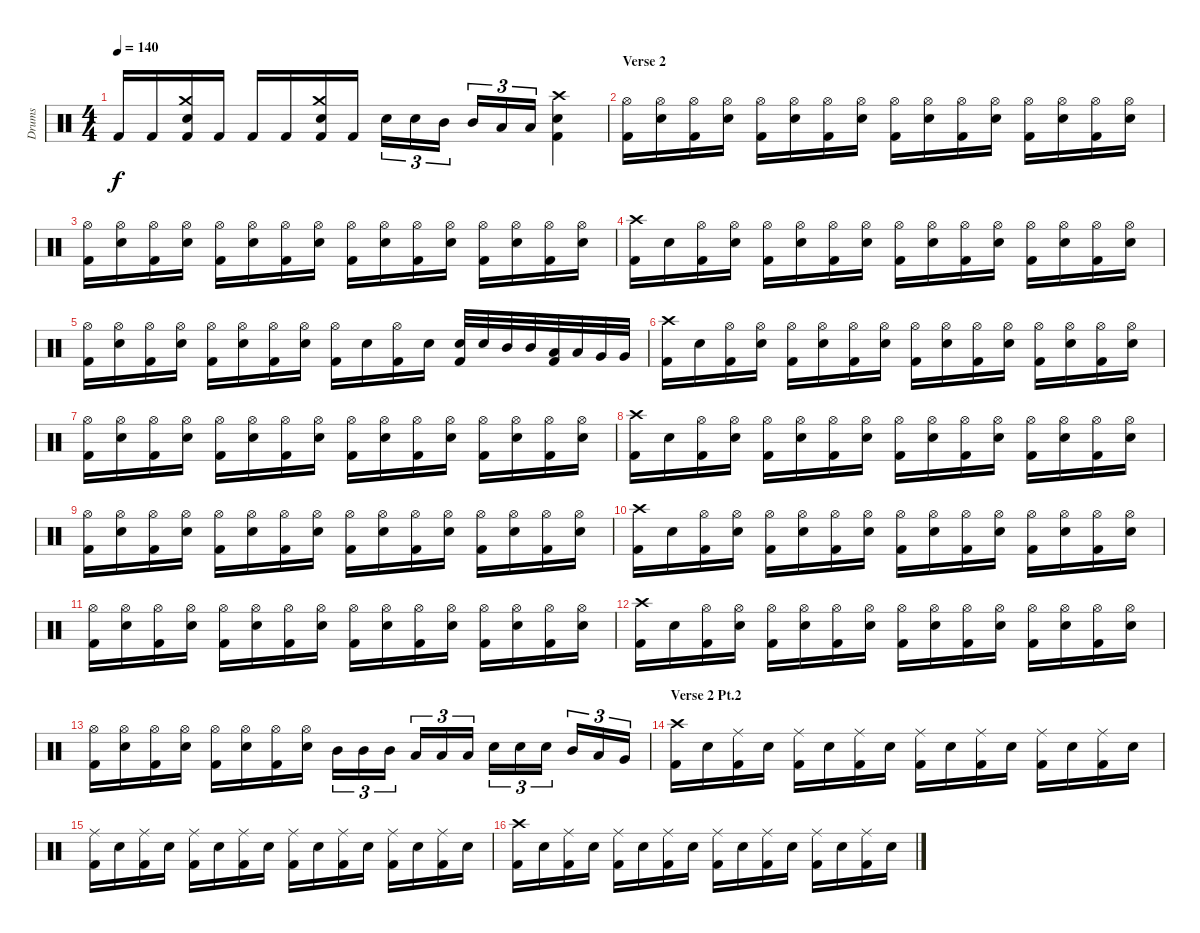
\track ("Drums" "Drums") {instrument percussion}
\staff {score}
\articulation defaults
\ts (4 4)
\tempo 140
\clef neutral
\ks c "Kick (hit) 2".16{dy f} "Kick (hit) 2".16
("Crash medium (hit)" "Electric Snare (hit)" "Kick (hit) 2").16 "Kick (hit) 2".16 "Kick (hit) 2".16 "Kick (hit) 2".16 ("Crash medium (hit)" "Electric Snare (hit)" "Kick (hit) 2").16 "Kick (hit) 2".16 "Electric Snare (hit)".16{tu (3 2)} "Electric Snare (hit)".16{tu (3 2)} "Mid Tom (hit)".16{tu (3 2)} "Mid Tom (hit)".16{tu (3 2)} "Low Tom (hit)".16{tu (3 2)} "Low Tom (hit)".16{tu (3 2)} ("Crash high (hit)" "Electric Snare (hit)" "Kick (hit) 2").4 |
\section ("" "Verse 2")
("Hi-Hat (open)" "Kick (hit) 2").16 ("Hi-Hat (open)" "Electric Snare (hit)").16 ("Hi-Hat (open)" "Kick (hit) 2").16 ("Hi-Hat (open)" "Electric Snare (hit)").16 ("Hi-Hat (open)" "Kick (hit) 2").16 ("Hi-Hat (open)" "Electric Snare (hit)").16 ("Hi-Hat (open)" "Kick (hit) 2").16 ("Hi-Hat (open)" "Electric Snare (hit)").16 ("Hi-Hat (open)" "Kick (hit) 2").16 ("Hi-Hat (open)" "Electric Snare (hit)").16 ("Hi-Hat (open)" "Kick (hit) 2").16 ("Hi-Hat (open)" "Electric Snare (hit)").16 ("Hi-Hat (open)" "Kick (hit) 2").16 ("Hi-Hat (open)" "Electric Snare (hit)").16 ("Hi-Hat (open)" "Kick (hit) 2").16 ("Hi-Hat (open)" "Electric Snare (hit)").16 |
("Hi-Hat (open)" "Kick (hit) 2").16 ("Hi-Hat (open)" "Electric Snare (hit)").16 ("Hi-Hat (open)" "Kick (hit) 2").16 ("Hi-Hat (open)" "Electric Snare (hit)").16 ("Hi-Hat (open)" "Kick (hit) 2").16 ("Hi-Hat (open)" "Electric Snare (hit)").16 ("Hi-Hat (open)" "Kick (hit) 2").16 ("Hi-Hat (open)" "Electric Snare (hit)").16 ("Hi-Hat (open)" "Kick (hit) 2").16 ("Hi-Hat (open)" "Electric Snare (hit)").16 ("Hi-Hat (open)" "Kick (hit) 2").16 ("Hi-Hat (open)" "Electric Snare (hit)").16 ("Hi-Hat (open)" "Kick (hit) 2").16 ("Hi-Hat (open)" "Electric Snare (hit)").16 ("Hi-Hat (open)" "Kick (hit) 2").16 ("Hi-Hat (open)" "Electric Snare (hit)").16 |
("Crash high (hit)" "Kick (hit) 2").16 "Electric Snare (hit)".16 ("Hi-Hat (open)" "Kick (hit) 2").16 ("Hi-Hat (open)" "Electric Snare (hit)").16 ("Hi-Hat (open)" "Kick (hit) 2").16 ("Hi-Hat (open)" "Electric Snare (hit)").16 ("Hi-Hat (open)" "Kick (hit) 2").16 ("Hi-Hat (open)" "Electric Snare (hit)").16 ("Hi-Hat (open)" "Kick (hit) 2").16 ("Hi-Hat (open)" "Electric Snare (hit)").16 ("Hi-Hat (open)" "Kick (hit) 2").16 ("Hi-Hat (open)" "Electric Snare (hit)").16 ("Hi-Hat (open)" "Kick (hit) 2").16 ("Hi-Hat (open)" "Electric Snare (hit)").16 ("Hi-Hat (open)" "Kick (hit) 2").16 ("Hi-Hat (open)" "Electric Snare (hit)").16 |
("Hi-Hat (open)" "Kick (hit) 2").16 ("Hi-Hat (open)" "Electric Snare (hit)").16 ("Hi-Hat (open)" "Kick (hit) 2").16 ("Hi-Hat (open)" "Electric Snare (hit)").16 ("Hi-Hat (open)" "Kick (hit) 2").16 ("Hi-Hat (open)" "Electric Snare (hit)").16 ("Hi-Hat (open)" "Kick (hit) 2").16 ("Hi-Hat (open)" "Electric Snare (hit)").16 ("Hi-Hat (open)" "Kick (hit) 2").16 "Electric Snare (hit)".16 ("Hi-Hat (open)" "Kick (hit) 2").16 "Electric Snare (hit)".16 ("Electric Snare (hit)" "Kick (hit) 2").32 "Electric Snare (hit)".32 "Mid Tom (hit)".32 "Mid Tom (hit)".32 ("Low Tom (hit)" "Kick (hit) 2").32 "Low Tom (hit)".32 "Very Low Tom (hit)".32 "Very Low Tom (hit)".32 |
("Crash high (hit)" "Kick (hit) 2").16 "Electric Snare (hit)".16 ("Hi-Hat (open)" "Kick (hit) 2").16 ("Hi-Hat (open)" "Electric Snare (hit)").16 ("Hi-Hat (open)" "Kick (hit) 2").16 ("Hi-Hat (open)" "Electric Snare (hit)").16 ("Hi-Hat (open)" "Kick (hit) 2").16 ("Hi-Hat (open)" "Electric Snare (hit)").16 ("Hi-Hat (open)" "Kick (hit) 2").16 ("Hi-Hat (open)" "Electric Snare (hit)").16 ("Hi-Hat (open)" "Kick (hit) 2").16 ("Hi-Hat (open)" "Electric Snare (hit)").16 ("Hi-Hat (open)" "Kick (hit) 2").16 ("Hi-Hat (open)" "Electric Snare (hit)").16 ("Hi-Hat (open)" "Kick (hit) 2").16 ("Hi-Hat (open)" "Electric Snare (hit)").16 |
("Hi-Hat (open)" "Kick (hit) 2").16 ("Hi-Hat (open)" "Electric Snare (hit)").16 ("Hi-Hat (open)" "Kick (hit) 2").16 ("Hi-Hat (open)" "Electric Snare (hit)").16 ("Hi-Hat (open)" "Kick (hit) 2").16 ("Hi-Hat (open)" "Electric Snare (hit)").16 ("Hi-Hat (open)" "Kick (hit) 2").16 ("Hi-Hat (open)" "Electric Snare (hit)").16 ("Hi-Hat (open)" "Kick (hit) 2").16 ("Hi-Hat (open)" "Electric Snare (hit)").16 ("Hi-Hat (open)" "Kick (hit) 2").16 ("Hi-Hat (open)" "Electric Snare (hit)").16 ("Hi-Hat (open)" "Kick (hit) 2").16 ("Hi-Hat (open)" "Electric Snare (hit)").16 ("Hi-Hat (open)" "Kick (hit) 2").16 ("Hi-Hat (open)" "Electric Snare (hit)").16 |
("Crash high (hit)" "Kick (hit) 2").16 "Electric Snare (hit)".16 ("Hi-Hat (open)" "Kick (hit) 2").16 ("Hi-Hat (open)" "Electric Snare (hit)").16 ("Hi-Hat (open)" "Kick (hit) 2").16 ("Hi-Hat (open)" "Electric Snare (hit)").16 ("Hi-Hat (open)" "Kick (hit) 2").16 ("Hi-Hat (open)" "Electric Snare (hit)").16 ("Hi-Hat (open)" "Kick (hit) 2").16 ("Hi-Hat (open)" "Electric Snare (hit)").16 ("Hi-Hat (open)" "Kick (hit) 2").16 ("Hi-Hat (open)" "Electric Snare (hit)").16 ("Hi-Hat (open)" "Kick (hit) 2").16 ("Hi-Hat (open)" "Electric Snare (hit)").16 ("Hi-Hat (open)" "Kick (hit) 2").16 ("Hi-Hat (open)" "Electric Snare (hit)").16 |
("Hi-Hat (open)" "Kick (hit) 2").16 ("Hi-Hat (open)" "Electric Snare (hit)").16 ("Hi-Hat (open)" "Kick (hit) 2").16 ("Hi-Hat (open)" "Electric Snare (hit)").16 ("Hi-Hat (open)" "Kick (hit) 2").16 ("Hi-Hat (open)" "Electric Snare (hit)").16 ("Hi-Hat (open)" "Kick (hit) 2").16 ("Hi-Hat (open)" "Electric Snare (hit)").16 ("Hi-Hat (open)" "Kick (hit) 2").16 ("Hi-Hat (open)" "Electric Snare (hit)").16 ("Hi-Hat (open)" "Kick (hit) 2").16 ("Hi-Hat (open)" "Electric Snare (hit)").16 ("Hi-Hat (open)" "Kick (hit) 2").16 ("Hi-Hat (open)" "Electric Snare (hit)").16 ("Hi-Hat (open)" "Kick (hit) 2").16 ("Hi-Hat (open)" "Electric Snare (hit)").16 |
("Crash high (hit)" "Kick (hit) 2").16 "Electric Snare (hit)".16 ("Hi-Hat (open)" "Kick (hit) 2").16 ("Hi-Hat (open)" "Electric Snare (hit)").16 ("Hi-Hat (open)" "Kick (hit) 2").16 ("Hi-Hat (open)" "Electric Snare (hit)").16 ("Hi-Hat (open)" "Kick (hit) 2").16 ("Hi-Hat (open)" "Electric Snare (hit)").16 ("Hi-Hat (open)" "Kick (hit) 2").16 ("Hi-Hat (open)" "Electric Snare (hit)").16 ("Hi-Hat (open)" "Kick (hit) 2").16 ("Hi-Hat (open)" "Electric Snare (hit)").16 ("Hi-Hat (open)" "Kick (hit) 2").16 ("Hi-Hat (open)" "Electric Snare (hit)").16 ("Hi-Hat (open)" "Kick (hit) 2").16 ("Hi-Hat (open)" "Electric Snare (hit)").16 |
("Hi-Hat (open)" "Kick (hit) 2").16 ("Hi-Hat (open)" "Electric Snare (hit)").16 ("Hi-Hat (open)" "Kick (hit) 2").16 ("Hi-Hat (open)" "Electric Snare (hit)").16 ("Hi-Hat (open)" "Kick (hit) 2").16 ("Hi-Hat (open)" "Electric Snare (hit)").16 ("Hi-Hat (open)" "Kick (hit) 2").16 ("Hi-Hat (open)" "Electric Snare (hit)").16 ("Hi-Hat (open)" "Kick (hit) 2").16 ("Hi-Hat (open)" "Electric Snare (hit)").16 ("Hi-Hat (open)" "Kick (hit) 2").16 ("Hi-Hat (open)" "Electric Snare (hit)").16 ("Hi-Hat (open)" "Kick (hit) 2").16 ("Hi-Hat (open)" "Electric Snare (hit)").16 ("Hi-Hat (open)" "Kick (hit) 2").16 ("Hi-Hat (open)" "Electric Snare (hit)").16 |
("Crash high (hit)" "Kick (hit) 2").16 "Electric Snare (hit)".16 ("Hi-Hat (open)" "Kick (hit) 2").16 ("Hi-Hat (open)" "Electric Snare (hit)").16 ("Hi-Hat (open)" "Kick (hit) 2").16 ("Hi-Hat (open)" "Electric Snare (hit)").16 ("Hi-Hat (open)" "Kick (hit) 2").16 ("Hi-Hat (open)" "Electric Snare (hit)").16 ("Hi-Hat (open)" "Kick (hit) 2").16 ("Hi-Hat (open)" "Electric Snare (hit)").16 ("Hi-Hat (open)" "Kick (hit) 2").16 ("Hi-Hat (open)" "Electric Snare (hit)").16 ("Hi-Hat (open)" "Kick (hit) 2").16 ("Hi-Hat (open)" "Electric Snare (hit)").16 ("Hi-Hat (open)" "Kick (hit) 2").16 ("Hi-Hat (open)" "Electric Snare (hit)").16 |
("Hi-Hat (open)" "Kick (hit) 2").16 ("Hi-Hat (open)" "Electric Snare (hit)").16 ("Hi-Hat (open)" "Kick (hit) 2").16 ("Hi-Hat (open)" "Electric Snare (hit)").16 ("Hi-Hat (open)" "Kick (hit) 2").16 ("Hi-Hat (open)" "Electric Snare (hit)").16 ("Hi-Hat (open)" "Kick (hit) 2").16 ("Hi-Hat (open)" "Electric Snare (hit)").16 "Mid Tom (hit)".16{tu (3 2)} "Mid Tom (hit)".16{tu (3 2)} "Mid Tom (hit)".16{tu (3 2)} "Low Tom (hit)".16{tu (3 2)} "Low Tom (hit)".16{tu (3 2)} "Low Tom (hit)".16{tu (3 2)} "Electric Snare (hit)".16{tu (3 2)} "Electric Snare (hit)".16{tu (3 2)} "Electric Snare (hit)".16{tu (3 2)} "Mid Tom (hit)".16{tu (3 2)} "Low Tom (hit)".16{tu (3 2)} "Very Low Tom (hit)".16{tu (3 2)} |
\section ("" "Verse 2 Pt.2")
("Crash high (hit)" "Kick (hit) 2").16 "Electric Snare (hit)".16 ("Ride (middle)" "Kick (hit) 2").16 "Electric Snare (hit)".16 ("Ride (middle)" "Kick (hit) 2").16 "Electric Snare (hit)".16 ("Ride (middle)" "Kick (hit) 2").16 "Electric Snare (hit)".16 ("Ride (middle)" "Kick (hit) 2").16 "Electric Snare (hit)".16 ("Ride (middle)" "Kick (hit) 2").16 "Electric Snare (hit)".16 ("Ride (middle)" "Kick (hit) 2").16 "Electric Snare (hit)".16 ("Ride (middle)" "Kick (hit) 2").16 "Electric Snare (hit)".16 |
("Ride (middle)" "Kick (hit) 2").16 "Electric Snare (hit)".16 ("Ride (middle)" "Kick (hit) 2").16 "Electric Snare (hit)".16 ("Ride (middle)" "Kick (hit) 2").16 "Electric Snare (hit)".16 ("Ride (middle)" "Kick (hit) 2").16 "Electric Snare (hit)".16 ("Ride (middle)" "Kick (hit) 2").16 "Electric Snare (hit)".16 ("Ride (middle)" "Kick (hit) 2").16 "Electric Snare (hit)".16 ("Ride (middle)" "Kick (hit) 2").16 "Electric Snare (hit)".16 ("Ride (middle)" "Kick (hit) 2").16 "Electric Snare (hit)".16 |
("Crash high (hit)" "Kick (hit) 2").16 "Electric Snare (hit)".16 ("Ride (middle)" "Kick (hit) 2").16 "Electric Snare (hit)".16 ("Ride (middle)" "Kick (hit) 2").16 "Electric Snare (hit)".16 ("Ride (middle)" "Kick (hit) 2").16 "Electric Snare (hit)".16 ("Ride (middle)" "Kick (hit) 2").16 "Electric Snare (hit)".16 ("Ride (middle)" "Kick (hit) 2").16 "Electric Snare (hit)".16 ("Ride (middle)" "Kick (hit) 2").16 "Electric Snare (hit)".16 ("Ride (middle)" "Kick (hit) 2").16 "Electric Snare (hit)".16
